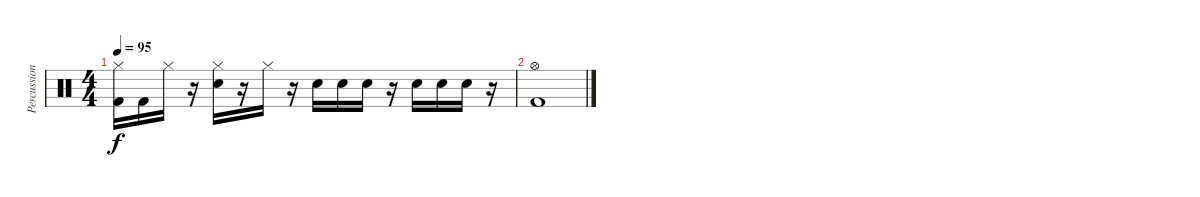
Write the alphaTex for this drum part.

\track ("Percussion" "Percussion") {instrument percussion}
\staff {score}
\articulation defaults
\ts (4 4)
\tempo 95
\clef neutral
\ks c
("Hi-Hat (closed)" "Kick (hit) 2").16{dy f} "Kick (hit) 2".16 "Hi-Hat (closed)".16 r.16 ("Hi-Hat (closed)" "Snare (hit) 2").16 r.16 "Hi-Hat (closed)".16 r.16 "Snare (hit) 2".16 "Snare (hit) 2".16 "Snare (hit) 2".16 r.16 "Snare (hit) 2".16 "Snare (hit) 2".16 "Snare (hit) 2".16 r.16 |
("Kick (hit) 2" "Hi-Hat (open)").1
